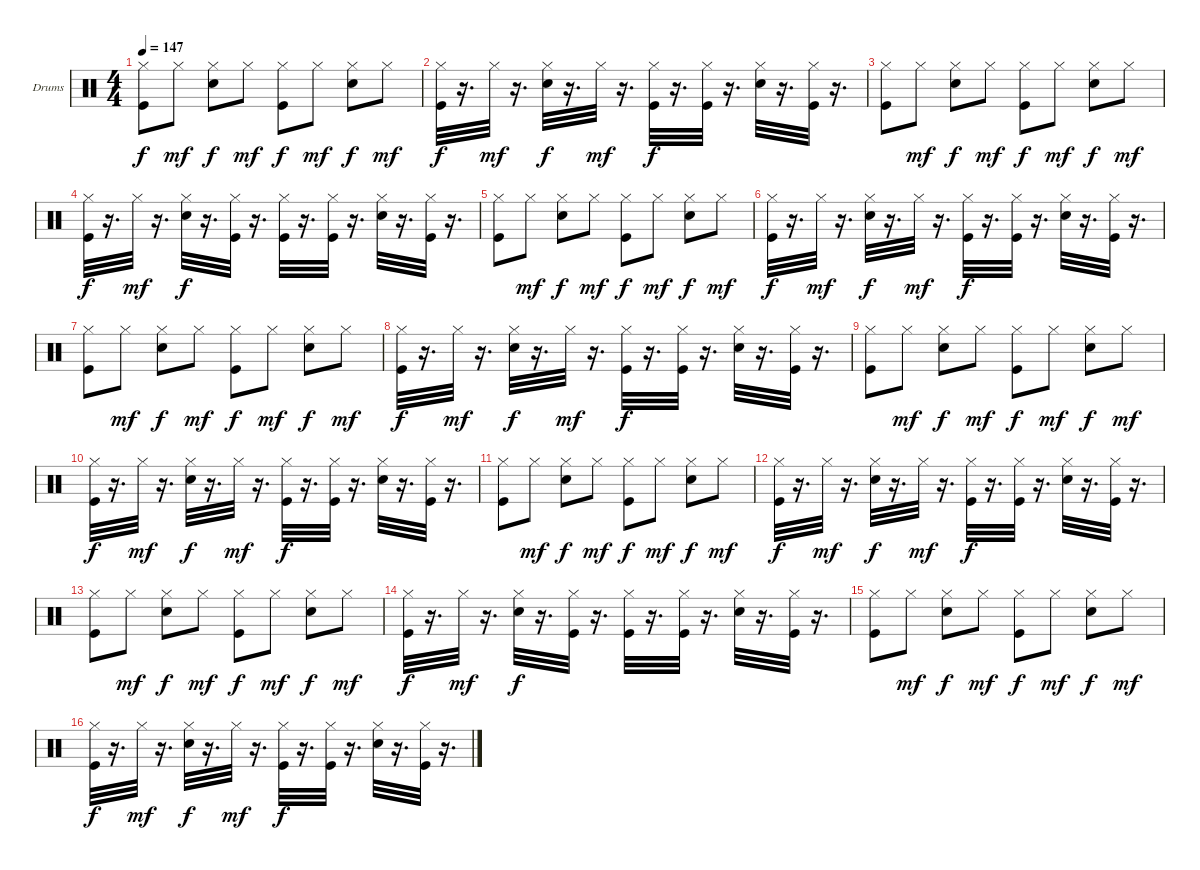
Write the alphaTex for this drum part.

\bracketExtendMode groupsimilarinstruments
\firstSystemTrackNameOrientation horizontal
\otherSystemsTrackNameOrientation horizontal
\track ("Drumkit" "Drums") {instrument percussion}
\staff {score}
\articulation defaults
\ts (4 4)
\tempo 147
\clef neutral
\ks c
("Hi-Hat (closed)" "Kick (hit)").8{dy f} "Hi-Hat (closed)".8{dy mf} ("Hi-Hat (closed)" "Snare (hit) 2").8{dy f} "Hi-Hat (closed)".8{dy mf} ("Hi-Hat (closed)" "Kick (hit)").8{dy f} "Hi-Hat (closed)".8{dy mf} ("Hi-Hat (closed)" "Snare (hit) 2").8{dy f} "Hi-Hat (closed)".8{dy mf} |
("Kick (hit)" "Hi-Hat (closed)").32{dy f} r.16{d} "Hi-Hat (closed)".32{dy mf} r.16{d} ("Snare (hit) 2" "Hi-Hat (closed)").32{dy f} r.16{d} "Hi-Hat (closed)".32{dy mf} r.16{d} ("Kick (hit)" "Hi-Hat (closed)").32{dy f} r.16{d} ("Kick (hit)" "Hi-Hat (closed)").32 r.16{d} ("Snare (hit) 2" "Hi-Hat (closed)").32 r.16{d} ("Kick (hit)" "Hi-Hat (closed)").32 r.16{d} |
("Hi-Hat (closed)" "Kick (hit)").8 "Hi-Hat (closed)".8{dy mf} ("Hi-Hat (closed)" "Snare (hit) 2").8{dy f} "Hi-Hat (closed)".8{dy mf} ("Hi-Hat (closed)" "Kick (hit)").8{dy f} "Hi-Hat (closed)".8{dy mf} ("Hi-Hat (closed)" "Snare (hit) 2").8{dy f} "Hi-Hat (closed)".8{dy mf} |
("Kick (hit)" "Hi-Hat (closed)").32{dy f} r.16{d} "Hi-Hat (closed)".32{dy mf} r.16{d} ("Snare (hit) 2" "Hi-Hat (closed)").32{dy f} r.16{d} ("Kick (hit)" "Hi-Hat (closed)").32 r.16{d} ("Kick (hit)" "Hi-Hat (closed)").32 r.16{d} ("Kick (hit)" "Hi-Hat (closed)").32 r.16{d} ("Snare (hit) 2" "Hi-Hat (closed)").32 r.16{d} ("Kick (hit)" "Hi-Hat (closed)").32 r.16{d} |
("Hi-Hat (closed)" "Kick (hit)").8 "Hi-Hat (closed)".8{dy mf} ("Hi-Hat (closed)" "Snare (hit) 2").8{dy f} "Hi-Hat (closed)".8{dy mf} ("Hi-Hat (closed)" "Kick (hit)").8{dy f} "Hi-Hat (closed)".8{dy mf} ("Hi-Hat (closed)" "Snare (hit) 2").8{dy f} "Hi-Hat (closed)".8{dy mf} |
("Kick (hit)" "Hi-Hat (closed)").32{dy f} r.16{d} "Hi-Hat (closed)".32{dy mf} r.16{d} ("Snare (hit) 2" "Hi-Hat (closed)").32{dy f} r.16{d} "Hi-Hat (closed)".32{dy mf} r.16{d} ("Kick (hit)" "Hi-Hat (closed)").32{dy f} r.16{d} ("Kick (hit)" "Hi-Hat (closed)").32 r.16{d} ("Snare (hit) 2" "Hi-Hat (closed)").32 r.16{d} ("Kick (hit)" "Hi-Hat (closed)").32 r.16{d} |
("Hi-Hat (closed)" "Kick (hit)").8 "Hi-Hat (closed)".8{dy mf} ("Hi-Hat (closed)" "Snare (hit) 2").8{dy f} "Hi-Hat (closed)".8{dy mf} ("Hi-Hat (closed)" "Kick (hit)").8{dy f} "Hi-Hat (closed)".8{dy mf} ("Hi-Hat (closed)" "Snare (hit) 2").8{dy f} "Hi-Hat (closed)".8{dy mf} |
("Kick (hit)" "Hi-Hat (closed)").32{dy f} r.16{d} "Hi-Hat (closed)".32{dy mf} r.16{d} ("Snare (hit) 2" "Hi-Hat (closed)").32{dy f} r.16{d} "Hi-Hat (closed)".32{dy mf} r.16{d} ("Kick (hit)" "Hi-Hat (closed)").32{dy f} r.16{d} ("Kick (hit)" "Hi-Hat (closed)").32 r.16{d} ("Snare (hit) 2" "Hi-Hat (closed)").32 r.16{d} ("Kick (hit)" "Hi-Hat (closed)").32 r.16{d} |
("Hi-Hat (closed)" "Kick (hit)").8 "Hi-Hat (closed)".8{dy mf} ("Hi-Hat (closed)" "Snare (hit) 2").8{dy f} "Hi-Hat (closed)".8{dy mf} ("Hi-Hat (closed)" "Kick (hit)").8{dy f} "Hi-Hat (closed)".8{dy mf} ("Hi-Hat (closed)" "Snare (hit) 2").8{dy f} "Hi-Hat (closed)".8{dy mf} |
("Kick (hit)" "Hi-Hat (closed)").32{dy f} r.16{d} "Hi-Hat (closed)".32{dy mf} r.16{d} ("Snare (hit) 2" "Hi-Hat (closed)").32{dy f} r.16{d} "Hi-Hat (closed)".32{dy mf} r.16{d} ("Kick (hit)" "Hi-Hat (closed)").32{dy f} r.16{d} ("Kick (hit)" "Hi-Hat (closed)").32 r.16{d} ("Snare (hit) 2" "Hi-Hat (closed)").32 r.16{d} ("Kick (hit)" "Hi-Hat (closed)").32 r.16{d} |
("Hi-Hat (closed)" "Kick (hit)").8 "Hi-Hat (closed)".8{dy mf} ("Hi-Hat (closed)" "Snare (hit) 2").8{dy f} "Hi-Hat (closed)".8{dy mf} ("Hi-Hat (closed)" "Kick (hit)").8{dy f} "Hi-Hat (closed)".8{dy mf} ("Hi-Hat (closed)" "Snare (hit) 2").8{dy f} "Hi-Hat (closed)".8{dy mf} |
("Kick (hit)" "Hi-Hat (closed)").32{dy f} r.16{d} "Hi-Hat (closed)".32{dy mf} r.16{d} ("Snare (hit) 2" "Hi-Hat (closed)").32{dy f} r.16{d} "Hi-Hat (closed)".32{dy mf} r.16{d} ("Kick (hit)" "Hi-Hat (closed)").32{dy f} r.16{d} ("Kick (hit)" "Hi-Hat (closed)").32 r.16{d} ("Snare (hit) 2" "Hi-Hat (closed)").32 r.16{d} ("Kick (hit)" "Hi-Hat (closed)").32 r.16{d} |
("Hi-Hat (closed)" "Kick (hit)").8 "Hi-Hat (closed)".8{dy mf} ("Hi-Hat (closed)" "Snare (hit) 2").8{dy f} "Hi-Hat (closed)".8{dy mf} ("Hi-Hat (closed)" "Kick (hit)").8{dy f} "Hi-Hat (closed)".8{dy mf} ("Hi-Hat (closed)" "Snare (hit) 2").8{dy f} "Hi-Hat (closed)".8{dy mf} |
("Kick (hit)" "Hi-Hat (closed)").32{dy f} r.16{d} "Hi-Hat (closed)".32{dy mf} r.16{d} ("Snare (hit) 2" "Hi-Hat (closed)").32{dy f} r.16{d} ("Kick (hit)" "Hi-Hat (closed)").32 r.16{d} ("Kick (hit)" "Hi-Hat (closed)").32 r.16{d} ("Kick (hit)" "Hi-Hat (closed)").32 r.16{d} ("Snare (hit) 2" "Hi-Hat (closed)").32 r.16{d} ("Kick (hit)" "Hi-Hat (closed)").32 r.16{d} |
("Hi-Hat (closed)" "Kick (hit)").8 "Hi-Hat (closed)".8{dy mf} ("Hi-Hat (closed)" "Snare (hit) 2").8{dy f} "Hi-Hat (closed)".8{dy mf} ("Hi-Hat (closed)" "Kick (hit)").8{dy f} "Hi-Hat (closed)".8{dy mf} ("Hi-Hat (closed)" "Snare (hit) 2").8{dy f} "Hi-Hat (closed)".8{dy mf} |
("Kick (hit)" "Hi-Hat (closed)").32{dy f} r.16{d} "Hi-Hat (closed)".32{dy mf} r.16{d} ("Snare (hit) 2" "Hi-Hat (closed)").32{dy f} r.16{d} "Hi-Hat (closed)".32{dy mf} r.16{d} ("Kick (hit)" "Hi-Hat (closed)").32{dy f} r.16{d} ("Kick (hit)" "Hi-Hat (closed)").32 r.16{d} ("Snare (hit) 2" "Hi-Hat (closed)").32 r.16{d} ("Kick (hit)" "Hi-Hat (closed)").32 r.16{d}
